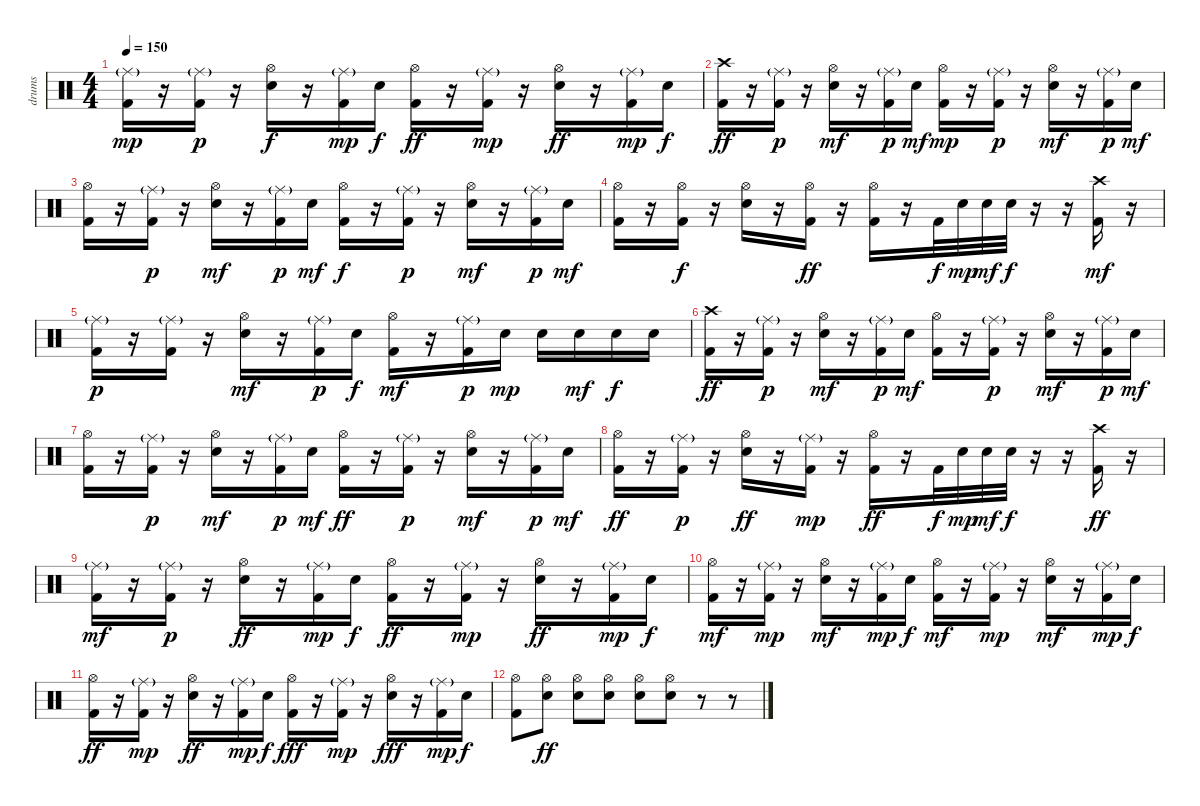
\track ("drums" "drums") {instrument percussion}
\staff {score}
\articulation defaults
\ts (4 4)
\tempo 150
\clef neutral
\ks c
("Ride (middle)"{g} "Kick (hit) 2").16{dy mp} r.16 ("Ride (middle)"{g} "Kick (hit) 2").16{dy p} r.16 ("Hi-Hat (open)" "Electric Snare (hit)").16{dy f} r.16 ("Ride (middle)"{g} "Kick (hit) 2").16{dy mp} "Electric Snare (hit)".16{dy f} ("Hi-Hat (open)" "Kick (hit) 2").16{dy ff} r.16 ("Ride (middle)"{g} "Kick (hit) 2").16{dy mp} r.16 ("Hi-Hat (open)" "Electric Snare (hit)").16{dy ff} r.16 ("Ride (middle)"{g} "Kick (hit) 2").16{dy mp} "Electric Snare (hit)".16{dy f} |
("Crash high (hit)" "Kick (hit) 2").16{dy ff} r.16 ("Ride (middle)"{g} "Kick (hit) 2").16{dy p} r.16 ("Hi-Hat (open)" "Electric Snare (hit)").16{dy mf} r.16 ("Ride (middle)"{g} "Kick (hit) 2").16{dy p} "Electric Snare (hit)".16{dy mf} ("Hi-Hat (open)" "Kick (hit) 2").16{dy mp} r.16 ("Ride (middle)"{g} "Kick (hit) 2").16{dy p} r.16 ("Hi-Hat (open)" "Electric Snare (hit)").16{dy mf} r.16 ("Ride (middle)"{g} "Kick (hit) 2").16{dy p} "Electric Snare (hit)".16{dy mf} |
("Hi-Hat (open)" "Kick (hit) 2").16 r.16 ("Ride (middle)"{g} "Kick (hit) 2").16{dy p} r.16 ("Hi-Hat (open)" "Electric Snare (hit)").16{dy mf} r.16 ("Ride (middle)"{g} "Kick (hit) 2").16{dy p} "Electric Snare (hit)".16{dy mf} ("Hi-Hat (open)" "Kick (hit) 2").16{dy f} r.16 ("Ride (middle)"{g} "Kick (hit) 2").16{dy p} r.16 ("Hi-Hat (open)" "Electric Snare (hit)").16{dy mf} r.16 ("Ride (middle)"{g} "Kick (hit) 2").16{dy p} "Electric Snare (hit)".16{dy mf} |
("Hi-Hat (open)" "Kick (hit) 2").16 r.16 ("Hi-Hat (open)" "Kick (hit) 2").16{dy f} r.16 ("Hi-Hat (open)" "Electric Snare (hit)").16 r.16 ("Hi-Hat (open)" "Kick (hit) 2").16{dy ff} r.16 ("Hi-Hat (open)" "Kick (hit) 2").16 r.16 "Kick (hit) 2".32{dy f} "Electric Snare (hit)".32{dy mp} "Electric Snare (hit)".32{dy mf} "Electric Snare (hit)".32{dy f} r.16 r.16 ("Crash high (hit)" "Kick (hit) 2").16{dy mf} r.16 |
("Ride (middle)"{g} "Kick (hit) 2").16{dy p} r.16 ("Ride (middle)"{g} "Kick (hit) 2").16 r.16 ("Hi-Hat (open)" "Electric Snare (hit)").16{dy mf} r.16 ("Ride (middle)"{g} "Kick (hit) 2").16{dy p} "Electric Snare (hit)".16{dy f} ("Hi-Hat (open)" "Kick (hit) 2").16{dy mf} r.16 ("Ride (middle)"{g} "Kick (hit) 2").16{dy p} "Electric Snare (hit)".16{dy mp} "Electric Snare (hit)".16 "Electric Snare (hit)".16{dy mf} "Electric Snare (hit)".16{dy f} "Electric Snare (hit)".16 |
("Crash high (hit)" "Kick (hit) 2").16{dy ff} r.16 ("Ride (middle)"{g} "Kick (hit) 2").16{dy p} r.16 ("Hi-Hat (open)" "Electric Snare (hit)").16{dy mf} r.16 ("Ride (middle)"{g} "Kick (hit) 2").16{dy p} "Electric Snare (hit)".16{dy mf} ("Hi-Hat (open)" "Kick (hit) 2").16 r.16 ("Ride (middle)"{g} "Kick (hit) 2").16{dy p} r.16 ("Hi-Hat (open)" "Electric Snare (hit)").16{dy mf} r.16 ("Ride (middle)"{g} "Kick (hit) 2").16{dy p} "Electric Snare (hit)".16{dy mf} |
("Hi-Hat (open)" "Kick (hit) 2").16 r.16 ("Ride (middle)"{g} "Kick (hit) 2").16{dy p} r.16 ("Hi-Hat (open)" "Electric Snare (hit)").16{dy mf} r.16 ("Ride (middle)"{g} "Kick (hit) 2").16{dy p} "Electric Snare (hit)".16{dy mf} ("Hi-Hat (open)" "Kick (hit) 2").16{dy ff} r.16 ("Ride (middle)"{g} "Kick (hit) 2").16{dy p} r.16 ("Hi-Hat (open)" "Electric Snare (hit)").16{dy mf} r.16 ("Ride (middle)"{g} "Kick (hit) 2").16{dy p} "Electric Snare (hit)".16{dy mf} |
("Hi-Hat (open)" "Kick (hit) 2").16{dy ff} r.16 ("Ride (middle)"{g} "Kick (hit) 2").16{dy p} r.16 ("Hi-Hat (open)" "Electric Snare (hit)").16{dy ff} r.16 ("Ride (middle)"{g} "Kick (hit) 2").16{dy mp} r.16 ("Hi-Hat (open)" "Kick (hit) 2").16{dy ff} r.16 "Kick (hit) 2".32{dy f} "Electric Snare (hit)".32{dy mp} "Electric Snare (hit)".32{dy mf} "Electric Snare (hit)".32{dy f} r.16 r.16 ("Crash high (hit)" "Kick (hit) 2").16{dy ff} r.16 |
("Ride (middle)"{g} "Kick (hit) 2").16{dy mf} r.16 ("Ride (middle)"{g} "Kick (hit) 2").16{dy p} r.16 ("Hi-Hat (open)" "Electric Snare (hit)").16{dy ff} r.16 ("Ride (middle)"{g} "Kick (hit) 2").16{dy mp} "Electric Snare (hit)".16{dy f} ("Hi-Hat (open)" "Kick (hit) 2").16{dy ff} r.16 ("Ride (middle)"{g} "Kick (hit) 2").16{dy mp} r.16 ("Hi-Hat (open)" "Electric Snare (hit)").16{dy ff} r.16 ("Ride (middle)"{g} "Kick (hit) 2").16{dy mp} "Electric Snare (hit)".16{dy f} |
("Hi-Hat (open)" "Kick (hit) 2").16{dy mf} r.16 ("Ride (middle)"{g} "Kick (hit) 2").16{dy mp} r.16 ("Hi-Hat (open)" "Electric Snare (hit)").16{dy mf} r.16 ("Ride (middle)"{g} "Kick (hit) 2").16{dy mp} "Electric Snare (hit)".16{dy f} ("Hi-Hat (open)" "Kick (hit) 2").16{dy mf} r.16 ("Ride (middle)"{g} "Kick (hit) 2").16{dy mp} r.16 ("Hi-Hat (open)" "Electric Snare (hit)").16{dy mf} r.16 ("Ride (middle)"{g} "Kick (hit) 2").16{dy mp} "Electric Snare (hit)".16{dy f} |
("Hi-Hat (open)" "Kick (hit) 2").16{dy ff} r.16 ("Ride (middle)"{g} "Kick (hit) 2").16{dy mp} r.16 ("Hi-Hat (open)" "Electric Snare (hit)").16{dy ff} r.16 ("Ride (middle)"{g} "Kick (hit) 2").16{dy mp} "Electric Snare (hit)".16{dy f} ("Hi-Hat (open)" "Kick (hit) 2").16{dy fff} r.16 ("Ride (middle)"{g} "Kick (hit) 2").16{dy mp} r.16 ("Hi-Hat (open)" "Electric Snare (hit)").16{dy fff} r.16 ("Ride (middle)"{g} "Kick (hit) 2").16{dy mp} "Electric Snare (hit)".16{dy f} |
("Hi-Hat (open)" "Kick (hit) 2").8 ("Hi-Hat (open)" "Electric Snare (hit)").8{dy ff} ("Hi-Hat (open)" "Electric Snare (hit)").8 ("Hi-Hat (open)" "Electric Snare (hit)").8 ("Hi-Hat (open)" "Electric Snare (hit)").8 ("Hi-Hat (open)" "Electric Snare (hit)").8 r.8 r.8
